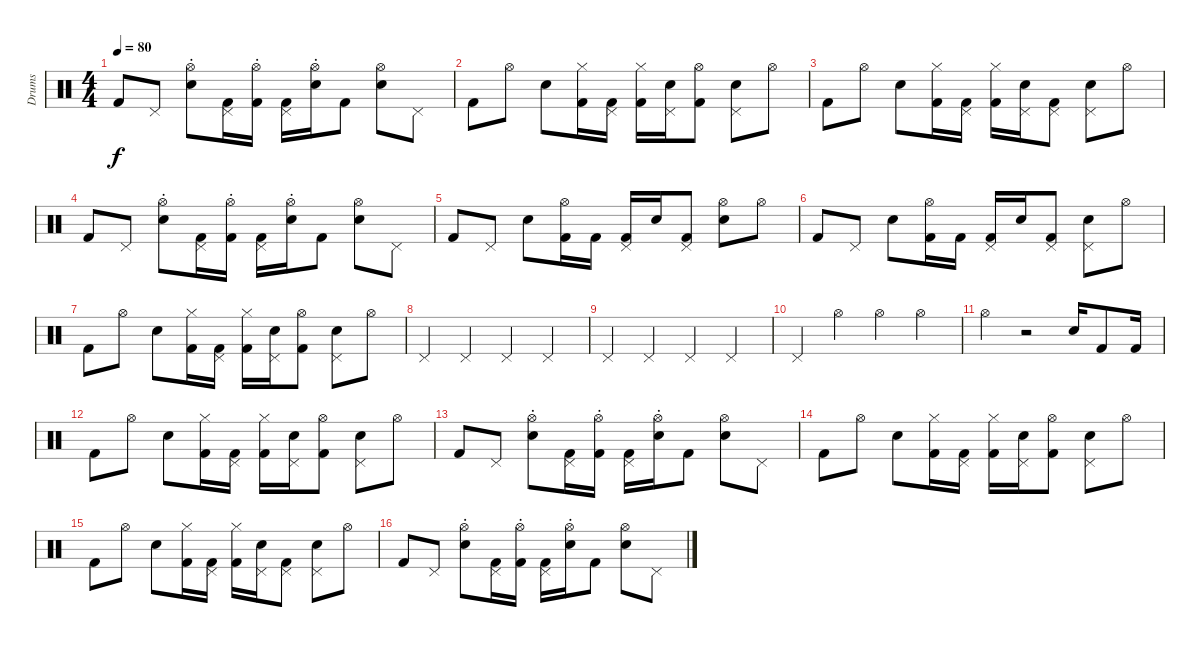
\track ("Drums" "Drums") {instrument percussion}
\staff {score}
\articulation defaults
\ts (4 4)
\tempo 80
\clef neutral
\ks c "Kick (hit) 2".8{dy f} "Pedal Hi-Hat (hit)".8
("Hi-Hat (open)"{st} "Snare (hit) 2").8 ("Pedal Hi-Hat (hit)" "Kick (hit) 2").16 ("Hi-Hat (open)"{st} "Kick (hit) 2").16 ("Pedal Hi-Hat (hit)" "Kick (hit) 2").16 ("Hi-Hat (open)"{st} "Snare (hit) 2").16 "Kick (hit) 2".8 ("Hi-Hat (open)" "Snare (hit) 2").8 "Pedal Hi-Hat (hit)".8 |
"Kick (hit) 2".8 "Hi-Hat (open)".8 "Snare (hit) 2".8 ("Hi-Hat (closed)" "Kick (hit) 2").16 ("Pedal Hi-Hat (hit)" "Kick (hit) 2").16 ("Hi-Hat (closed)" "Kick (hit) 2").16 ("Pedal Hi-Hat (hit)" "Snare (hit) 2").16 ("Hi-Hat (open)" "Kick (hit) 2").8 ("Pedal Hi-Hat (hit)" "Snare (hit) 2").8 "Hi-Hat (open)".8 |
"Kick (hit) 2".8 "Hi-Hat (open)".8 "Snare (hit) 2".8 ("Hi-Hat (closed)" "Kick (hit) 2").16 ("Pedal Hi-Hat (hit)" "Kick (hit) 2").16 ("Hi-Hat (closed)" "Kick (hit) 2").16 ("Pedal Hi-Hat (hit)" "Snare (hit) 2").16 ("Pedal Hi-Hat (hit)" "Kick (hit) 2").8 ("Pedal Hi-Hat (hit)" "Snare (hit) 2").8 "Hi-Hat (open)".8 |
"Kick (hit) 2".8 "Pedal Hi-Hat (hit)".8 ("Hi-Hat (open)"{st} "Snare (hit) 2").8 ("Pedal Hi-Hat (hit)" "Kick (hit) 2").16 ("Hi-Hat (open)"{st} "Kick (hit) 2").16 ("Pedal Hi-Hat (hit)" "Kick (hit) 2").16 ("Hi-Hat (open)"{st} "Snare (hit) 2").16 "Kick (hit) 2".8 ("Hi-Hat (open)" "Snare (hit) 2").8 "Pedal Hi-Hat (hit)".8 |
"Kick (hit) 2".8 "Pedal Hi-Hat (hit)".8 "Snare (hit) 2".8 ("Hi-Hat (open)" "Kick (hit) 2").16 "Kick (hit) 2".16 ("Pedal Hi-Hat (hit)" "Kick (hit) 2").16 "Snare (hit) 2".16 ("Pedal Hi-Hat (hit)" "Kick (hit) 2").8 ("Hi-Hat (open)" "Snare (hit) 2").8 "Hi-Hat (open)".8 |
"Kick (hit) 2".8 "Pedal Hi-Hat (hit)".8 "Snare (hit) 2".8 ("Hi-Hat (open)" "Kick (hit) 2").16 "Kick (hit) 2".16 ("Pedal Hi-Hat (hit)" "Kick (hit) 2").16 "Snare (hit) 2".16 ("Pedal Hi-Hat (hit)" "Kick (hit) 2").8 ("Pedal Hi-Hat (hit)" "Snare (hit) 2").8 "Hi-Hat (open)".8 |
"Kick (hit) 2".8 "Hi-Hat (open)".8 "Snare (hit) 2".8 ("Hi-Hat (closed)" "Kick (hit) 2").16 ("Pedal Hi-Hat (hit)" "Kick (hit) 2").16 ("Hi-Hat (closed)" "Kick (hit) 2").16 ("Pedal Hi-Hat (hit)" "Snare (hit) 2").16 ("Hi-Hat (open)" "Kick (hit) 2").8 ("Pedal Hi-Hat (hit)" "Snare (hit) 2").8 "Hi-Hat (open)".8 |
"Pedal Hi-Hat (hit)".4 "Pedal Hi-Hat (hit)".4 "Pedal Hi-Hat (hit)".4 "Pedal Hi-Hat (hit)".4 |
"Pedal Hi-Hat (hit)".4 "Pedal Hi-Hat (hit)".4 "Pedal Hi-Hat (hit)".4 "Pedal Hi-Hat (hit)".4 |
"Pedal Hi-Hat (hit)".4 "Hi-Hat (open)".4 "Hi-Hat (open)".4 "Hi-Hat (open)".4 |
"Hi-Hat (open)".4 r.2 "Snare (hit) 2".16 "Kick (hit) 2".8 "Kick (hit) 2".16 |
"Kick (hit) 2".8 "Hi-Hat (open)".8 "Snare (hit) 2".8 ("Hi-Hat (closed)" "Kick (hit) 2").16 ("Pedal Hi-Hat (hit)" "Kick (hit) 2").16 ("Hi-Hat (closed)" "Kick (hit) 2").16 ("Pedal Hi-Hat (hit)" "Snare (hit) 2").16 ("Hi-Hat (open)" "Kick (hit) 2").8 ("Pedal Hi-Hat (hit)" "Snare (hit) 2").8 "Hi-Hat (open)".8 |
"Kick (hit) 2".8 "Pedal Hi-Hat (hit)".8 ("Hi-Hat (open)"{st} "Snare (hit) 2").8 ("Pedal Hi-Hat (hit)" "Kick (hit) 2").16 ("Hi-Hat (open)"{st} "Kick (hit) 2").16 ("Pedal Hi-Hat (hit)" "Kick (hit) 2").16 ("Hi-Hat (open)"{st} "Snare (hit) 2").16 "Kick (hit) 2".8 ("Hi-Hat (open)" "Snare (hit) 2").8 "Pedal Hi-Hat (hit)".8 |
"Kick (hit) 2".8 "Hi-Hat (open)".8 "Snare (hit) 2".8 ("Hi-Hat (closed)" "Kick (hit) 2").16 ("Pedal Hi-Hat (hit)" "Kick (hit) 2").16 ("Hi-Hat (closed)" "Kick (hit) 2").16 ("Pedal Hi-Hat (hit)" "Snare (hit) 2").16 ("Hi-Hat (open)" "Kick (hit) 2").8 ("Pedal Hi-Hat (hit)" "Snare (hit) 2").8 "Hi-Hat (open)".8 |
"Kick (hit) 2".8 "Hi-Hat (open)".8 "Snare (hit) 2".8 ("Hi-Hat (closed)" "Kick (hit) 2").16 ("Pedal Hi-Hat (hit)" "Kick (hit) 2").16 ("Hi-Hat (closed)" "Kick (hit) 2").16 ("Pedal Hi-Hat (hit)" "Snare (hit) 2").16 ("Pedal Hi-Hat (hit)" "Kick (hit) 2").8 ("Pedal Hi-Hat (hit)" "Snare (hit) 2").8 "Hi-Hat (open)".8 |
"Kick (hit) 2".8 "Pedal Hi-Hat (hit)".8 ("Hi-Hat (open)"{st} "Snare (hit) 2").8 ("Pedal Hi-Hat (hit)" "Kick (hit) 2").16 ("Hi-Hat (open)"{st} "Kick (hit) 2").16 ("Pedal Hi-Hat (hit)" "Kick (hit) 2").16 ("Hi-Hat (open)"{st} "Snare (hit) 2").16 "Kick (hit) 2".8 ("Hi-Hat (open)" "Snare (hit) 2").8 "Pedal Hi-Hat (hit)".8
